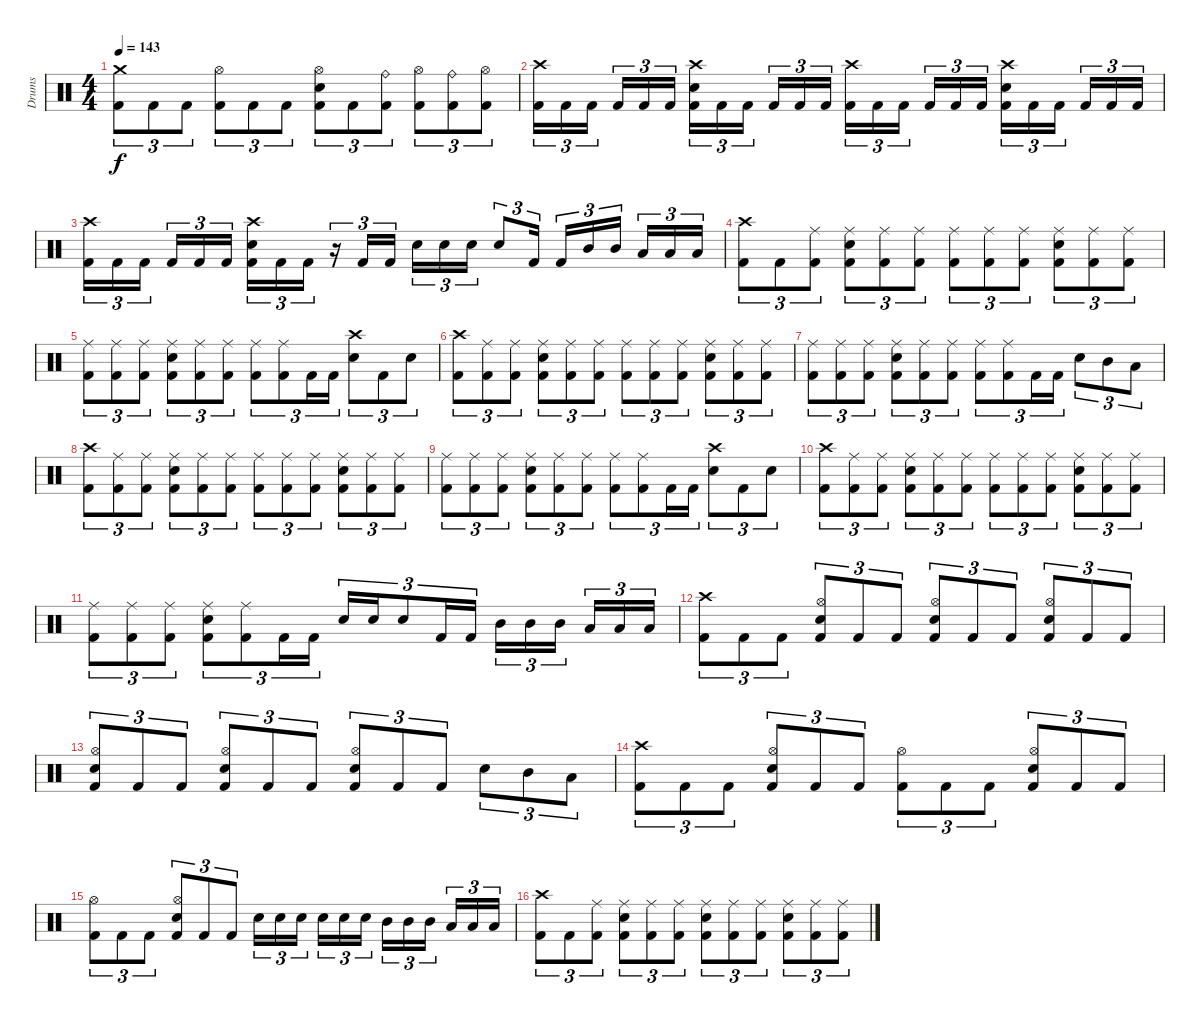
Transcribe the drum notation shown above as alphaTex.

\track ("Drums" "Drums") {instrument percussion}
\staff {score}
\articulation defaults
\ts (4 4)
\tempo 143
\clef neutral
\ks c
("Crash medium (hit)" "Kick (hit) 2").8{tu (3 2) dy f} "Kick (hit) 2".8{tu (3 2)} "Kick (hit) 2".8{tu (3 2)} ("Hi-Hat (open)" "Kick (hit) 2").8{tu (3 2)} "Kick (hit) 2".8{tu (3 2)} "Kick (hit) 2".8{tu (3 2)} ("Hi-Hat (open)" "Snare (hit) 2" "Kick (hit) 2").8{tu (3 2)} "Kick (hit) 2".8{tu (3 2)} ("Ride (bell)" "Kick (hit) 2").8{tu (3 2)} ("Hi-Hat (open)" "Kick (hit) 2").8{tu (3 2)} ("Ride (bell)" "Kick (hit) 2").8{tu (3 2)} ("Hi-Hat (open)" "Kick (hit) 2").8{tu (3 2)} |
("Crash high (hit)" "Kick (hit) 2").16{tu (3 2)} "Kick (hit) 2".16{tu (3 2)} "Kick (hit) 2".16{tu (3 2) beam splitsecondary} "Kick (hit) 2".16{tu (3 2)} "Kick (hit) 2".16{tu (3 2)} "Kick (hit) 2".16{tu (3 2)} ("Crash high (hit)" "Snare (hit) 2" "Kick (hit) 2").16{tu (3 2)} "Kick (hit) 2".16{tu (3 2)} "Kick (hit) 2".16{tu (3 2) beam splitsecondary} "Kick (hit) 2".16{tu (3 2)} "Kick (hit) 2".16{tu (3 2)} "Kick (hit) 2".16{tu (3 2)} ("Crash high (hit)" "Kick (hit) 2").16{tu (3 2)} "Kick (hit) 2".16{tu (3 2)} "Kick (hit) 2".16{tu (3 2) beam splitsecondary} "Kick (hit) 2".16{tu (3 2)} "Kick (hit) 2".16{tu (3 2)} "Kick (hit) 2".16{tu (3 2)} ("Crash high (hit)" "Snare (hit) 2" "Kick (hit) 2").16{tu (3 2)} "Kick (hit) 2".16{tu (3 2)} "Kick (hit) 2".16{tu (3 2) beam splitsecondary} "Kick (hit) 2".16{tu (3 2)} "Kick (hit) 2".16{tu (3 2)} "Kick (hit) 2".16{tu (3 2)} |
("Crash high (hit)" "Kick (hit) 2").16{tu (3 2)} "Kick (hit) 2".16{tu (3 2)} "Kick (hit) 2".16{tu (3 2) beam splitsecondary} "Kick (hit) 2".16{tu (3 2)} "Kick (hit) 2".16{tu (3 2)} "Kick (hit) 2".16{tu (3 2)} ("Crash high (hit)" "Snare (hit) 2" "Kick (hit) 2").16{tu (3 2)} "Kick (hit) 2".16{tu (3 2)} "Kick (hit) 2".16{tu (3 2)} r.16{tu (3 2)} "Kick (hit) 2".16{tu (3 2)} "Kick (hit) 2".16{tu (3 2)} "Snare (hit) 2".16{tu (3 2)} "Snare (hit) 2".16{tu (3 2)} "Snare (hit) 2".16{tu (3 2)} "Snare (hit) 2".8{tu (3 2)} "Kick (hit) 2".16{tu (3 2)} "Kick (hit) 2".16{tu (3 2)} "Mid Tom (hit)".16{tu (3 2)} "Mid Tom (hit)".16{tu (3 2) beam splitsecondary} "Low Tom (hit)".16{tu (3 2)} "Low Tom (hit)".16{tu (3 2)} "Low Tom (hit)".16{tu (3 2)} |
("Crash high (hit)" "Kick (hit) 2").8{tu (3 2)} "Kick (hit) 2".8{tu (3 2)} ("Ride (middle)" "Kick (hit) 2").8{tu (3 2)} ("Ride (middle)" "Snare (hit) 2" "Kick (hit) 2").8{tu (3 2)} ("Ride (middle)" "Kick (hit) 2").8{tu (3 2)} ("Ride (middle)" "Kick (hit) 2").8{tu (3 2)} ("Ride (middle)" "Kick (hit) 2").8{tu (3 2)} ("Ride (middle)" "Kick (hit) 2").8{tu (3 2)} ("Ride (middle)" "Kick (hit) 2").8{tu (3 2)} ("Ride (middle)" "Snare (hit) 2" "Kick (hit) 2").8{tu (3 2)} ("Ride (middle)" "Kick (hit) 2").8{tu (3 2)} ("Ride (middle)" "Kick (hit) 2").8{tu (3 2)} |
("Ride (middle)" "Kick (hit) 2").8{tu (3 2)} ("Ride (middle)" "Kick (hit) 2").8{tu (3 2)} ("Ride (middle)" "Kick (hit) 2").8{tu (3 2)} ("Ride (middle)" "Snare (hit) 2" "Kick (hit) 2").8{tu (3 2)} ("Ride (middle)" "Kick (hit) 2").8{tu (3 2)} ("Ride (middle)" "Kick (hit) 2").8{tu (3 2)} ("Ride (middle)" "Kick (hit) 2").8{tu (3 2)} ("Ride (middle)" "Kick (hit) 2").8{tu (3 2)} "Kick (hit) 2".16{tu (3 2)} "Kick (hit) 2".16{tu (3 2)} ("Crash high (hit)" "Snare (hit) 2").8{tu (3 2)} "Kick (hit) 2".8{tu (3 2)} "Snare (hit) 2".8{tu (3 2)} |
("Crash high (hit)" "Kick (hit) 2").8{tu (3 2)} ("Ride (middle)" "Kick (hit) 2").8{tu (3 2)} ("Ride (middle)" "Kick (hit) 2").8{tu (3 2)} ("Ride (middle)" "Snare (hit) 2" "Kick (hit) 2").8{tu (3 2)} ("Ride (middle)" "Kick (hit) 2").8{tu (3 2)} ("Ride (middle)" "Kick (hit) 2").8{tu (3 2)} ("Ride (middle)" "Kick (hit) 2").8{tu (3 2)} ("Ride (middle)" "Kick (hit) 2").8{tu (3 2)} ("Ride (middle)" "Kick (hit) 2").8{tu (3 2)} ("Ride (middle)" "Snare (hit) 2" "Kick (hit) 2").8{tu (3 2)} ("Ride (middle)" "Kick (hit) 2").8{tu (3 2)} ("Ride (middle)" "Kick (hit) 2").8{tu (3 2)} |
("Ride (middle)" "Kick (hit) 2").8{tu (3 2)} ("Ride (middle)" "Kick (hit) 2").8{tu (3 2)} ("Ride (middle)" "Kick (hit) 2").8{tu (3 2)} ("Ride (middle)" "Snare (hit) 2" "Kick (hit) 2").8{tu (3 2)} ("Ride (middle)" "Kick (hit) 2").8{tu (3 2)} ("Ride (middle)" "Kick (hit) 2").8{tu (3 2)} ("Ride (middle)" "Kick (hit) 2").8{tu (3 2)} ("Ride (middle)" "Kick (hit) 2").8{tu (3 2)} "Kick (hit) 2".16{tu (3 2)} "Kick (hit) 2".16{tu (3 2)} "Snare (hit) 2".8{tu (3 2)} "Mid Tom (hit)".8{tu (3 2)} "Low Tom (hit)".8{tu (3 2)} |
("Crash high (hit)" "Kick (hit) 2").8{tu (3 2)} ("Ride (middle)" "Kick (hit) 2").8{tu (3 2)} ("Ride (middle)" "Kick (hit) 2").8{tu (3 2)} ("Ride (middle)" "Snare (hit) 2" "Kick (hit) 2").8{tu (3 2)} ("Ride (middle)" "Kick (hit) 2").8{tu (3 2)} ("Ride (middle)" "Kick (hit) 2").8{tu (3 2)} ("Ride (middle)" "Kick (hit) 2").8{tu (3 2)} ("Ride (middle)" "Kick (hit) 2").8{tu (3 2)} ("Ride (middle)" "Kick (hit) 2").8{tu (3 2)} ("Ride (middle)" "Snare (hit) 2" "Kick (hit) 2").8{tu (3 2)} ("Ride (middle)" "Kick (hit) 2").8{tu (3 2)} ("Ride (middle)" "Kick (hit) 2").8{tu (3 2)} |
("Ride (middle)" "Kick (hit) 2").8{tu (3 2)} ("Ride (middle)" "Kick (hit) 2").8{tu (3 2)} ("Ride (middle)" "Kick (hit) 2").8{tu (3 2)} ("Ride (middle)" "Snare (hit) 2" "Kick (hit) 2").8{tu (3 2)} ("Ride (middle)" "Kick (hit) 2").8{tu (3 2)} ("Ride (middle)" "Kick (hit) 2").8{tu (3 2)} ("Ride (middle)" "Kick (hit) 2").8{tu (3 2)} ("Ride (middle)" "Kick (hit) 2").8{tu (3 2)} "Kick (hit) 2".16{tu (3 2)} "Kick (hit) 2".16{tu (3 2)} ("Crash high (hit)" "Snare (hit) 2").8{tu (3 2)} "Kick (hit) 2".8{tu (3 2)} "Snare (hit) 2".8{tu (3 2)} |
("Crash high (hit)" "Kick (hit) 2").8{tu (3 2)} ("Ride (middle)" "Kick (hit) 2").8{tu (3 2)} ("Ride (middle)" "Kick (hit) 2").8{tu (3 2)} ("Ride (middle)" "Snare (hit) 2" "Kick (hit) 2").8{tu (3 2)} ("Ride (middle)" "Kick (hit) 2").8{tu (3 2)} ("Ride (middle)" "Kick (hit) 2").8{tu (3 2)} ("Ride (middle)" "Kick (hit) 2").8{tu (3 2)} ("Ride (middle)" "Kick (hit) 2").8{tu (3 2)} ("Ride (middle)" "Kick (hit) 2").8{tu (3 2)} ("Ride (middle)" "Snare (hit) 2" "Kick (hit) 2").8{tu (3 2)} ("Ride (middle)" "Kick (hit) 2").8{tu (3 2)} ("Ride (middle)" "Kick (hit) 2").8{tu (3 2)} |
("Ride (middle)" "Kick (hit) 2").8{tu (3 2)} ("Ride (middle)" "Kick (hit) 2").8{tu (3 2)} ("Ride (middle)" "Kick (hit) 2").8{tu (3 2)} ("Ride (middle)" "Snare (hit) 2" "Kick (hit) 2").8{tu (3 2)} ("Ride (middle)" "Kick (hit) 2").8{tu (3 2)} "Kick (hit) 2".16{tu (3 2)} "Kick (hit) 2".16{tu (3 2)} "Snare (hit) 2".16{tu (3 2)} "Snare (hit) 2".16{tu (3 2)} "Snare (hit) 2".8{tu (3 2)} "Kick (hit) 2".16{tu (3 2)} "Kick (hit) 2".16{tu (3 2)} "Mid Tom (hit)".16{tu (3 2)} "Mid Tom (hit)".16{tu (3 2)} "Mid Tom (hit)".16{tu (3 2) beam splitsecondary} "Low Tom (hit)".16{tu (3 2)} "Low Tom (hit)".16{tu (3 2)} "Low Tom (hit)".16{tu (3 2)} |
("Crash high (hit)" "Kick (hit) 2").8{tu (3 2)} "Kick (hit) 2".8{tu (3 2)} "Kick (hit) 2".8{tu (3 2)} ("Hi-Hat (open)" "Snare (hit) 2" "Kick (hit) 2").8{tu (3 2)} "Kick (hit) 2".8{tu (3 2)} "Kick (hit) 2".8{tu (3 2)} ("Hi-Hat (open)" "Snare (hit) 2" "Kick (hit) 2").8{tu (3 2)} "Kick (hit) 2".8{tu (3 2)} "Kick (hit) 2".8{tu (3 2)} ("Hi-Hat (open)" "Snare (hit) 2" "Kick (hit) 2").8{tu (3 2)} "Kick (hit) 2".8{tu (3 2)} "Kick (hit) 2".8{tu (3 2)} |
("Hi-Hat (open)" "Snare (hit) 2" "Kick (hit) 2").8{tu (3 2)} "Kick (hit) 2".8{tu (3 2)} "Kick (hit) 2".8{tu (3 2)} ("Hi-Hat (open)" "Snare (hit) 2" "Kick (hit) 2").8{tu (3 2)} "Kick (hit) 2".8{tu (3 2)} "Kick (hit) 2".8{tu (3 2)} ("Hi-Hat (open)" "Snare (hit) 2" "Kick (hit) 2").8{tu (3 2)} "Kick (hit) 2".8{tu (3 2)} "Kick (hit) 2".8{tu (3 2)} "Snare (hit) 2".8{tu (3 2)} "Mid Tom (hit)".8{tu (3 2)} "Low Tom (hit)".8{tu (3 2)} |
("Crash high (hit)" "Kick (hit) 2").8{tu (3 2)} "Kick (hit) 2".8{tu (3 2)} "Kick (hit) 2".8{tu (3 2)} ("Hi-Hat (open)" "Snare (hit) 2" "Kick (hit) 2").8{tu (3 2)} "Kick (hit) 2".8{tu (3 2)} "Kick (hit) 2".8{tu (3 2)} ("Hi-Hat (open)" "Kick (hit) 2").8{tu (3 2)} "Kick (hit) 2".8{tu (3 2)} "Kick (hit) 2".8{tu (3 2)} ("Hi-Hat (open)" "Snare (hit) 2" "Kick (hit) 2").8{tu (3 2)} "Kick (hit) 2".8{tu (3 2)} "Kick (hit) 2".8{tu (3 2)} |
("Hi-Hat (open)" "Kick (hit) 2").8{tu (3 2)} "Kick (hit) 2".8{tu (3 2)} "Kick (hit) 2".8{tu (3 2)} ("Hi-Hat (open)" "Snare (hit) 2" "Kick (hit) 2").8{tu (3 2)} "Kick (hit) 2".8{tu (3 2)} "Kick (hit) 2".8{tu (3 2)} "Snare (hit) 2".16{tu (3 2)} "Snare (hit) 2".16{tu (3 2)} "Snare (hit) 2".16{tu (3 2) beam splitsecondary} "Snare (hit) 2".16{tu (3 2)} "Snare (hit) 2".16{tu (3 2)} "Snare (hit) 2".16{tu (3 2)} "Mid Tom (hit)".16{tu (3 2)} "Mid Tom (hit)".16{tu (3 2)} "Mid Tom (hit)".16{tu (3 2) beam splitsecondary} "Low Tom (hit)".16{tu (3 2)} "Low Tom (hit)".16{tu (3 2)} "Low Tom (hit)".16{tu (3 2)} |
("Crash high (hit)" "Kick (hit) 2").8{tu (3 2)} "Kick (hit) 2".8{tu (3 2)} ("Ride (middle)" "Kick (hit) 2").8{tu (3 2)} ("Ride (middle)" "Snare (hit) 2" "Kick (hit) 2").8{tu (3 2)} ("Ride (middle)" "Kick (hit) 2").8{tu (3 2)} ("Ride (middle)" "Kick (hit) 2").8{tu (3 2)} ("Ride (middle)" "Snare (hit) 2" "Kick (hit) 2").8{tu (3 2)} ("Ride (middle)" "Kick (hit) 2").8{tu (3 2)} ("Ride (middle)" "Kick (hit) 2").8{tu (3 2)} ("Ride (middle)" "Snare (hit) 2" "Kick (hit) 2").8{tu (3 2)} ("Ride (middle)" "Kick (hit) 2").8{tu (3 2)} ("Ride (middle)" "Kick (hit) 2").8{tu (3 2)}
